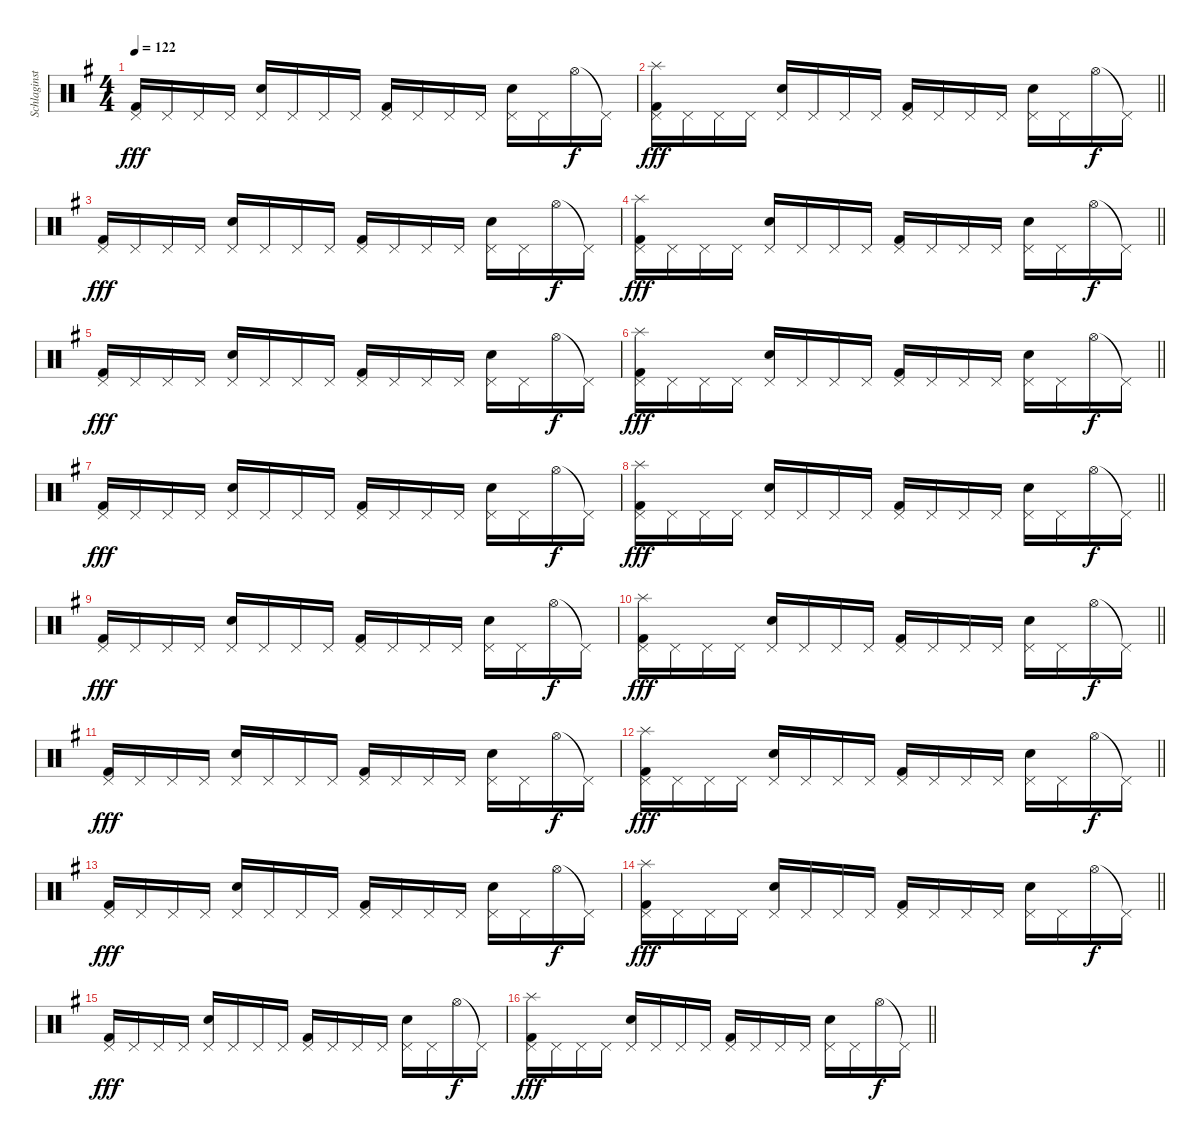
\track ("Schlaginstrumente - Auswahl" "Schlaginst") {instrument percussion}
\staff {score}
\articulation defaults
\ts (4 4)
\tempo 122
\clef neutral
\ks g
("Pedal Hi-Hat (hit)" "Kick (hit) 2").16{dy fff} "Pedal Hi-Hat (hit)".16 "Pedal Hi-Hat (hit)".16 "Pedal Hi-Hat (hit)".16 ("Pedal Hi-Hat (hit)" "Electric Snare (hit)").16 "Pedal Hi-Hat (hit)".16 "Pedal Hi-Hat (hit)".16 "Pedal Hi-Hat (hit)".16 ("Pedal Hi-Hat (hit)" "Kick (hit) 2").16 "Pedal Hi-Hat (hit)".16 "Pedal Hi-Hat (hit)".16 "Pedal Hi-Hat (hit)".16 ("Pedal Hi-Hat (hit)" "Electric Snare (hit)").16 "Pedal Hi-Hat (hit)".16 "Hi-Hat (open)".16{dy f} "Pedal Hi-Hat (hit)"{t}.16 |
\barLineRight lightlight
("Splash (hit)" "Pedal Hi-Hat (hit)" "Kick (hit) 2").16{dy fff} "Pedal Hi-Hat (hit)".16 "Pedal Hi-Hat (hit)".16 "Pedal Hi-Hat (hit)".16 ("Pedal Hi-Hat (hit)" "Electric Snare (hit)").16 "Pedal Hi-Hat (hit)".16 "Pedal Hi-Hat (hit)".16 "Pedal Hi-Hat (hit)".16 ("Pedal Hi-Hat (hit)" "Kick (hit) 2").16 "Pedal Hi-Hat (hit)".16 "Pedal Hi-Hat (hit)".16 "Pedal Hi-Hat (hit)".16 ("Pedal Hi-Hat (hit)" "Electric Snare (hit)").16 "Pedal Hi-Hat (hit)".16 "Hi-Hat (open)".16{dy f} "Pedal Hi-Hat (hit)"{t}.16 |
("Pedal Hi-Hat (hit)" "Kick (hit) 2").16{dy fff} "Pedal Hi-Hat (hit)".16 "Pedal Hi-Hat (hit)".16 "Pedal Hi-Hat (hit)".16 ("Pedal Hi-Hat (hit)" "Electric Snare (hit)").16 "Pedal Hi-Hat (hit)".16 "Pedal Hi-Hat (hit)".16 "Pedal Hi-Hat (hit)".16 ("Pedal Hi-Hat (hit)" "Kick (hit) 2").16 "Pedal Hi-Hat (hit)".16 "Pedal Hi-Hat (hit)".16 "Pedal Hi-Hat (hit)".16 ("Pedal Hi-Hat (hit)" "Electric Snare (hit)").16 "Pedal Hi-Hat (hit)".16 "Hi-Hat (open)".16{dy f} "Pedal Hi-Hat (hit)"{t}.16 |
\barLineRight lightlight
("Splash (hit)" "Pedal Hi-Hat (hit)" "Kick (hit) 2").16{dy fff} "Pedal Hi-Hat (hit)".16 "Pedal Hi-Hat (hit)".16 "Pedal Hi-Hat (hit)".16 ("Pedal Hi-Hat (hit)" "Electric Snare (hit)").16 "Pedal Hi-Hat (hit)".16 "Pedal Hi-Hat (hit)".16 "Pedal Hi-Hat (hit)".16 ("Pedal Hi-Hat (hit)" "Kick (hit) 2").16 "Pedal Hi-Hat (hit)".16 "Pedal Hi-Hat (hit)".16 "Pedal Hi-Hat (hit)".16 ("Pedal Hi-Hat (hit)" "Electric Snare (hit)").16 "Pedal Hi-Hat (hit)".16 "Hi-Hat (open)".16{dy f} "Pedal Hi-Hat (hit)"{t}.16 |
("Pedal Hi-Hat (hit)" "Kick (hit) 2").16{dy fff} "Pedal Hi-Hat (hit)".16 "Pedal Hi-Hat (hit)".16 "Pedal Hi-Hat (hit)".16 ("Pedal Hi-Hat (hit)" "Electric Snare (hit)").16 "Pedal Hi-Hat (hit)".16 "Pedal Hi-Hat (hit)".16 "Pedal Hi-Hat (hit)".16 ("Pedal Hi-Hat (hit)" "Kick (hit) 2").16 "Pedal Hi-Hat (hit)".16 "Pedal Hi-Hat (hit)".16 "Pedal Hi-Hat (hit)".16 ("Pedal Hi-Hat (hit)" "Electric Snare (hit)").16 "Pedal Hi-Hat (hit)".16 "Hi-Hat (open)".16{dy f} "Pedal Hi-Hat (hit)"{t}.16 |
\barLineRight lightlight
("Splash (hit)" "Pedal Hi-Hat (hit)" "Kick (hit) 2").16{dy fff} "Pedal Hi-Hat (hit)".16 "Pedal Hi-Hat (hit)".16 "Pedal Hi-Hat (hit)".16 ("Pedal Hi-Hat (hit)" "Electric Snare (hit)").16 "Pedal Hi-Hat (hit)".16 "Pedal Hi-Hat (hit)".16 "Pedal Hi-Hat (hit)".16 ("Pedal Hi-Hat (hit)" "Kick (hit) 2").16 "Pedal Hi-Hat (hit)".16 "Pedal Hi-Hat (hit)".16 "Pedal Hi-Hat (hit)".16 ("Pedal Hi-Hat (hit)" "Electric Snare (hit)").16 "Pedal Hi-Hat (hit)".16 "Hi-Hat (open)".16{dy f} "Pedal Hi-Hat (hit)"{t}.16 |
("Pedal Hi-Hat (hit)" "Kick (hit) 2").16{dy fff} "Pedal Hi-Hat (hit)".16 "Pedal Hi-Hat (hit)".16 "Pedal Hi-Hat (hit)".16 ("Pedal Hi-Hat (hit)" "Electric Snare (hit)").16 "Pedal Hi-Hat (hit)".16 "Pedal Hi-Hat (hit)".16 "Pedal Hi-Hat (hit)".16 ("Pedal Hi-Hat (hit)" "Kick (hit) 2").16 "Pedal Hi-Hat (hit)".16 "Pedal Hi-Hat (hit)".16 "Pedal Hi-Hat (hit)".16 ("Pedal Hi-Hat (hit)" "Electric Snare (hit)").16 "Pedal Hi-Hat (hit)".16 "Hi-Hat (open)".16{dy f} "Pedal Hi-Hat (hit)"{t}.16 |
\barLineRight lightlight
("Splash (hit)" "Pedal Hi-Hat (hit)" "Kick (hit) 2").16{dy fff} "Pedal Hi-Hat (hit)".16 "Pedal Hi-Hat (hit)".16 "Pedal Hi-Hat (hit)".16 ("Pedal Hi-Hat (hit)" "Electric Snare (hit)").16 "Pedal Hi-Hat (hit)".16 "Pedal Hi-Hat (hit)".16 "Pedal Hi-Hat (hit)".16 ("Pedal Hi-Hat (hit)" "Kick (hit) 2").16 "Pedal Hi-Hat (hit)".16 "Pedal Hi-Hat (hit)".16 "Pedal Hi-Hat (hit)".16 ("Pedal Hi-Hat (hit)" "Electric Snare (hit)").16 "Pedal Hi-Hat (hit)".16 "Hi-Hat (open)".16{dy f} "Pedal Hi-Hat (hit)"{t}.16 |
("Pedal Hi-Hat (hit)" "Kick (hit) 2").16{dy fff} "Pedal Hi-Hat (hit)".16 "Pedal Hi-Hat (hit)".16 "Pedal Hi-Hat (hit)".16 ("Pedal Hi-Hat (hit)" "Electric Snare (hit)").16 "Pedal Hi-Hat (hit)".16 "Pedal Hi-Hat (hit)".16 "Pedal Hi-Hat (hit)".16 ("Pedal Hi-Hat (hit)" "Kick (hit) 2").16 "Pedal Hi-Hat (hit)".16 "Pedal Hi-Hat (hit)".16 "Pedal Hi-Hat (hit)".16 ("Pedal Hi-Hat (hit)" "Electric Snare (hit)").16 "Pedal Hi-Hat (hit)".16 "Hi-Hat (open)".16{dy f} "Pedal Hi-Hat (hit)"{t}.16 |
\barLineRight lightlight
("Splash (hit)" "Pedal Hi-Hat (hit)" "Kick (hit) 2").16{dy fff} "Pedal Hi-Hat (hit)".16 "Pedal Hi-Hat (hit)".16 "Pedal Hi-Hat (hit)".16 ("Pedal Hi-Hat (hit)" "Electric Snare (hit)").16 "Pedal Hi-Hat (hit)".16 "Pedal Hi-Hat (hit)".16 "Pedal Hi-Hat (hit)".16 ("Pedal Hi-Hat (hit)" "Kick (hit) 2").16 "Pedal Hi-Hat (hit)".16 "Pedal Hi-Hat (hit)".16 "Pedal Hi-Hat (hit)".16 ("Pedal Hi-Hat (hit)" "Electric Snare (hit)").16 "Pedal Hi-Hat (hit)".16 "Hi-Hat (open)".16{dy f} "Pedal Hi-Hat (hit)"{t}.16 |
("Pedal Hi-Hat (hit)" "Kick (hit) 2").16{dy fff} "Pedal Hi-Hat (hit)".16 "Pedal Hi-Hat (hit)".16 "Pedal Hi-Hat (hit)".16 ("Pedal Hi-Hat (hit)" "Electric Snare (hit)").16 "Pedal Hi-Hat (hit)".16 "Pedal Hi-Hat (hit)".16 "Pedal Hi-Hat (hit)".16 ("Pedal Hi-Hat (hit)" "Kick (hit) 2").16 "Pedal Hi-Hat (hit)".16 "Pedal Hi-Hat (hit)".16 "Pedal Hi-Hat (hit)".16 ("Pedal Hi-Hat (hit)" "Electric Snare (hit)").16 "Pedal Hi-Hat (hit)".16 "Hi-Hat (open)".16{dy f} "Pedal Hi-Hat (hit)"{t}.16 |
\barLineRight lightlight
("Splash (hit)" "Pedal Hi-Hat (hit)" "Kick (hit) 2").16{dy fff} "Pedal Hi-Hat (hit)".16 "Pedal Hi-Hat (hit)".16 "Pedal Hi-Hat (hit)".16 ("Pedal Hi-Hat (hit)" "Electric Snare (hit)").16 "Pedal Hi-Hat (hit)".16 "Pedal Hi-Hat (hit)".16 "Pedal Hi-Hat (hit)".16 ("Pedal Hi-Hat (hit)" "Kick (hit) 2").16 "Pedal Hi-Hat (hit)".16 "Pedal Hi-Hat (hit)".16 "Pedal Hi-Hat (hit)".16 ("Pedal Hi-Hat (hit)" "Electric Snare (hit)").16 "Pedal Hi-Hat (hit)".16 "Hi-Hat (open)".16{dy f} "Pedal Hi-Hat (hit)"{t}.16 |
("Pedal Hi-Hat (hit)" "Kick (hit) 2").16{dy fff} "Pedal Hi-Hat (hit)".16 "Pedal Hi-Hat (hit)".16 "Pedal Hi-Hat (hit)".16 ("Pedal Hi-Hat (hit)" "Electric Snare (hit)").16 "Pedal Hi-Hat (hit)".16 "Pedal Hi-Hat (hit)".16 "Pedal Hi-Hat (hit)".16 ("Pedal Hi-Hat (hit)" "Kick (hit) 2").16 "Pedal Hi-Hat (hit)".16 "Pedal Hi-Hat (hit)".16 "Pedal Hi-Hat (hit)".16 ("Pedal Hi-Hat (hit)" "Electric Snare (hit)").16 "Pedal Hi-Hat (hit)".16 "Hi-Hat (open)".16{dy f} "Pedal Hi-Hat (hit)"{t}.16 |
\barLineRight lightlight
("Splash (hit)" "Pedal Hi-Hat (hit)" "Kick (hit) 2").16{dy fff} "Pedal Hi-Hat (hit)".16 "Pedal Hi-Hat (hit)".16 "Pedal Hi-Hat (hit)".16 ("Pedal Hi-Hat (hit)" "Electric Snare (hit)").16 "Pedal Hi-Hat (hit)".16 "Pedal Hi-Hat (hit)".16 "Pedal Hi-Hat (hit)".16 ("Pedal Hi-Hat (hit)" "Kick (hit) 2").16 "Pedal Hi-Hat (hit)".16 "Pedal Hi-Hat (hit)".16 "Pedal Hi-Hat (hit)".16 ("Pedal Hi-Hat (hit)" "Electric Snare (hit)").16 "Pedal Hi-Hat (hit)".16 "Hi-Hat (open)".16{dy f} "Pedal Hi-Hat (hit)"{t}.16 |
("Pedal Hi-Hat (hit)" "Kick (hit) 2").16{dy fff} "Pedal Hi-Hat (hit)".16 "Pedal Hi-Hat (hit)".16 "Pedal Hi-Hat (hit)".16 ("Pedal Hi-Hat (hit)" "Electric Snare (hit)").16 "Pedal Hi-Hat (hit)".16 "Pedal Hi-Hat (hit)".16 "Pedal Hi-Hat (hit)".16 ("Pedal Hi-Hat (hit)" "Kick (hit) 2").16 "Pedal Hi-Hat (hit)".16 "Pedal Hi-Hat (hit)".16 "Pedal Hi-Hat (hit)".16 ("Pedal Hi-Hat (hit)" "Electric Snare (hit)").16 "Pedal Hi-Hat (hit)".16 "Hi-Hat (open)".16{dy f} "Pedal Hi-Hat (hit)"{t}.16 |
\barLineRight lightlight
("Splash (hit)" "Pedal Hi-Hat (hit)" "Kick (hit) 2").16{dy fff} "Pedal Hi-Hat (hit)".16 "Pedal Hi-Hat (hit)".16 "Pedal Hi-Hat (hit)".16 ("Pedal Hi-Hat (hit)" "Electric Snare (hit)").16 "Pedal Hi-Hat (hit)".16 "Pedal Hi-Hat (hit)".16 "Pedal Hi-Hat (hit)".16 ("Pedal Hi-Hat (hit)" "Kick (hit) 2").16 "Pedal Hi-Hat (hit)".16 "Pedal Hi-Hat (hit)".16 "Pedal Hi-Hat (hit)".16 ("Pedal Hi-Hat (hit)" "Electric Snare (hit)").16 "Pedal Hi-Hat (hit)".16 "Hi-Hat (open)".16{dy f} "Pedal Hi-Hat (hit)"{t}.16
